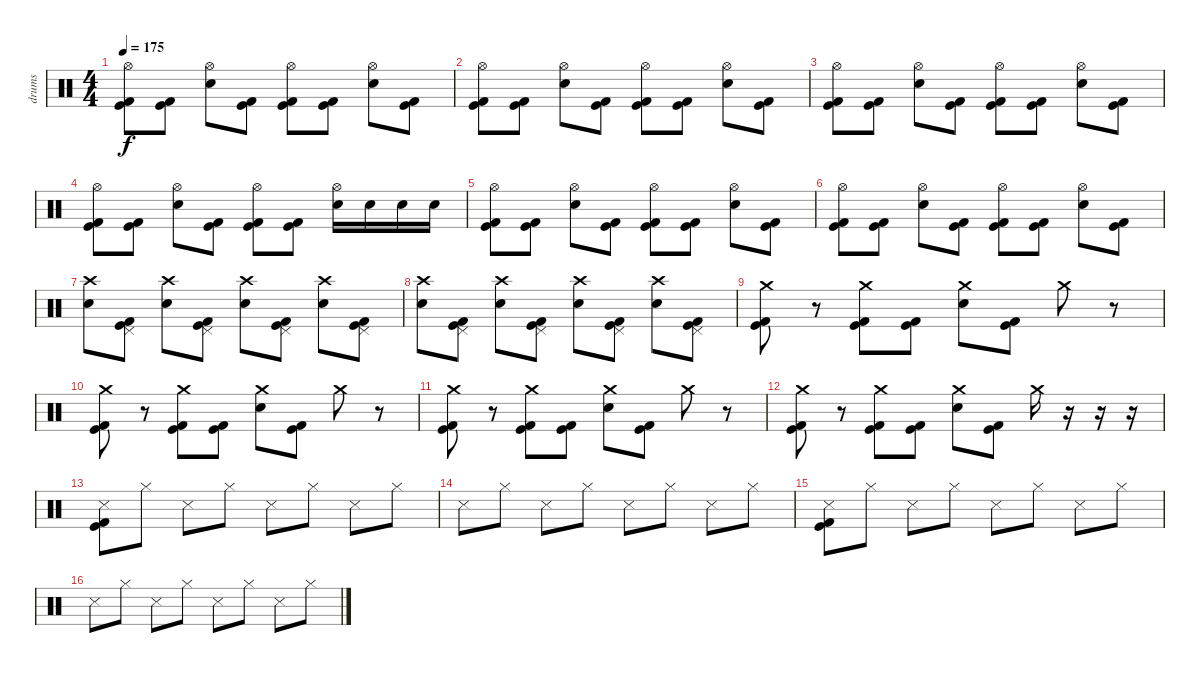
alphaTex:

\track ("drums" "drums") {instrument percussion}
\staff {score}
\articulation defaults
\ts (4 4)
\tempo 175
\clef neutral
\ks c
("Kick (hit)" "Kick (hit) 2" "Hi-Hat (open)").8{dy f} ("Kick (hit)" "Kick (hit) 2").8 ("Electric Snare (hit)" "Hi-Hat (open)").8 ("Kick (hit)" "Kick (hit) 2").8 ("Kick (hit)" "Kick (hit) 2" "Hi-Hat (open)").8 ("Kick (hit)" "Kick (hit) 2").8 ("Electric Snare (hit)" "Hi-Hat (open)").8 ("Kick (hit)" "Kick (hit) 2").8 |
("Kick (hit)" "Kick (hit) 2" "Hi-Hat (open)").8 ("Kick (hit)" "Kick (hit) 2").8 ("Electric Snare (hit)" "Hi-Hat (open)").8 ("Kick (hit)" "Kick (hit) 2").8 ("Kick (hit)" "Kick (hit) 2" "Hi-Hat (open)").8 ("Kick (hit)" "Kick (hit) 2").8 ("Electric Snare (hit)" "Hi-Hat (open)").8 ("Kick (hit)" "Kick (hit) 2").8 |
("Kick (hit)" "Kick (hit) 2" "Hi-Hat (open)").8 ("Kick (hit)" "Kick (hit) 2").8 ("Electric Snare (hit)" "Hi-Hat (open)").8 ("Kick (hit)" "Kick (hit) 2").8 ("Kick (hit)" "Kick (hit) 2" "Hi-Hat (open)").8 ("Kick (hit)" "Kick (hit) 2").8 ("Electric Snare (hit)" "Hi-Hat (open)").8 ("Kick (hit)" "Kick (hit) 2").8 |
("Kick (hit)" "Kick (hit) 2" "Hi-Hat (open)").8 ("Kick (hit)" "Kick (hit) 2").8 ("Electric Snare (hit)" "Hi-Hat (open)").8 ("Kick (hit)" "Kick (hit) 2").8 ("Kick (hit)" "Kick (hit) 2" "Hi-Hat (open)").8 ("Kick (hit)" "Kick (hit) 2").8 ("Electric Snare (hit)" "Hi-Hat (open)").16 "Electric Snare (hit)".16 "Electric Snare (hit)".16 "Electric Snare (hit)".16 |
("Kick (hit)" "Kick (hit) 2" "Hi-Hat (open)").8 ("Kick (hit)" "Kick (hit) 2").8 ("Electric Snare (hit)" "Hi-Hat (open)").8 ("Kick (hit)" "Kick (hit) 2").8 ("Kick (hit)" "Kick (hit) 2" "Hi-Hat (open)").8 ("Kick (hit)" "Kick (hit) 2").8 ("Electric Snare (hit)" "Hi-Hat (open)").8 ("Kick (hit)" "Kick (hit) 2").8 |
("Kick (hit)" "Kick (hit) 2" "Hi-Hat (open)").8 ("Kick (hit)" "Kick (hit) 2").8 ("Electric Snare (hit)" "Hi-Hat (open)").8 ("Kick (hit)" "Kick (hit) 2").8 ("Kick (hit)" "Kick (hit) 2" "Hi-Hat (open)").8 ("Kick (hit)" "Kick (hit) 2").8 ("Electric Snare (hit)" "Hi-Hat (open)").8 ("Kick (hit)" "Kick (hit) 2").8 |
("Electric Snare (hit)" "Crash high (hit)").8 ("Kick (hit)" "Kick (hit) 2" "Pedal Hi-Hat (hit)").8 ("Electric Snare (hit)" "Crash high (hit)").8 ("Kick (hit)" "Kick (hit) 2" "Pedal Hi-Hat (hit)").8 ("Electric Snare (hit)" "Crash high (hit)").8 ("Kick (hit)" "Kick (hit) 2" "Pedal Hi-Hat (hit)").8 ("Electric Snare (hit)" "Crash high (hit)").8 ("Kick (hit)" "Kick (hit) 2" "Pedal Hi-Hat (hit)").8 |
("Electric Snare (hit)" "Crash high (hit)").8 ("Kick (hit)" "Kick (hit) 2" "Pedal Hi-Hat (hit)").8 ("Electric Snare (hit)" "Crash high (hit)").8 ("Kick (hit)" "Kick (hit) 2" "Pedal Hi-Hat (hit)").8 ("Electric Snare (hit)" "Crash high (hit)").8 ("Kick (hit)" "Kick (hit) 2" "Pedal Hi-Hat (hit)").8 ("Electric Snare (hit)" "Crash high (hit)").8 ("Kick (hit)" "Kick (hit) 2" "Pedal Hi-Hat (hit)").8 |
("Kick (hit)" "Kick (hit) 2" "Crash medium (hit)").8 r.8 ("Kick (hit)" "Kick (hit) 2" "Crash medium (hit)").8 ("Kick (hit)" "Kick (hit) 2").8 ("Electric Snare (hit)" "Crash medium (hit)").8 ("Kick (hit)" "Kick (hit) 2").8 "Crash medium (hit)".8 r.8 |
("Kick (hit)" "Kick (hit) 2" "Crash medium (hit)").8 r.8 ("Kick (hit)" "Kick (hit) 2" "Crash medium (hit)").8 ("Kick (hit)" "Kick (hit) 2").8 ("Electric Snare (hit)" "Crash medium (hit)").8 ("Kick (hit)" "Kick (hit) 2").8 "Crash medium (hit)".8 r.8 |
("Kick (hit)" "Kick (hit) 2" "Crash medium (hit)").8 r.8 ("Kick (hit)" "Kick (hit) 2" "Crash medium (hit)").8 ("Kick (hit)" "Kick (hit) 2").8 ("Electric Snare (hit)" "Crash medium (hit)").8 ("Kick (hit)" "Kick (hit) 2").8 "Crash medium (hit)".8 r.8 |
("Kick (hit)" "Kick (hit) 2" "Crash medium (hit)").8 r.8 ("Kick (hit)" "Kick (hit) 2" "Crash medium (hit)").8 ("Kick (hit)" "Kick (hit) 2").8 ("Electric Snare (hit)" "Crash medium (hit)").8 ("Kick (hit)" "Kick (hit) 2").8 "Crash medium (hit)".16 r.16 r.16 r.16 |
("Snare (side stick) 3" "Kick (hit)" "Kick (hit) 2").8 "Hi-Hat (closed)".8 "Snare (side stick) 3".8 "Hi-Hat (closed)".8 "Snare (side stick) 3".8 "Hi-Hat (closed)".8 "Snare (side stick) 3".8 "Hi-Hat (closed)".8 |
"Snare (side stick) 3".8 "Hi-Hat (closed)".8 "Snare (side stick) 3".8 "Hi-Hat (closed)".8 "Snare (side stick) 3".8 "Hi-Hat (closed)".8 "Snare (side stick) 3".8 "Hi-Hat (closed)".8 |
("Snare (side stick) 3" "Kick (hit)" "Kick (hit) 2").8 "Hi-Hat (closed)".8 "Snare (side stick) 3".8 "Hi-Hat (closed)".8 "Snare (side stick) 3".8 "Hi-Hat (closed)".8 "Snare (side stick) 3".8 "Hi-Hat (closed)".8 |
"Snare (side stick) 3".8 "Hi-Hat (closed)".8 "Snare (side stick) 3".8 "Hi-Hat (closed)".8 "Snare (side stick) 3".8 "Hi-Hat (closed)".8 "Snare (side stick) 3".8 "Hi-Hat (closed)".8
